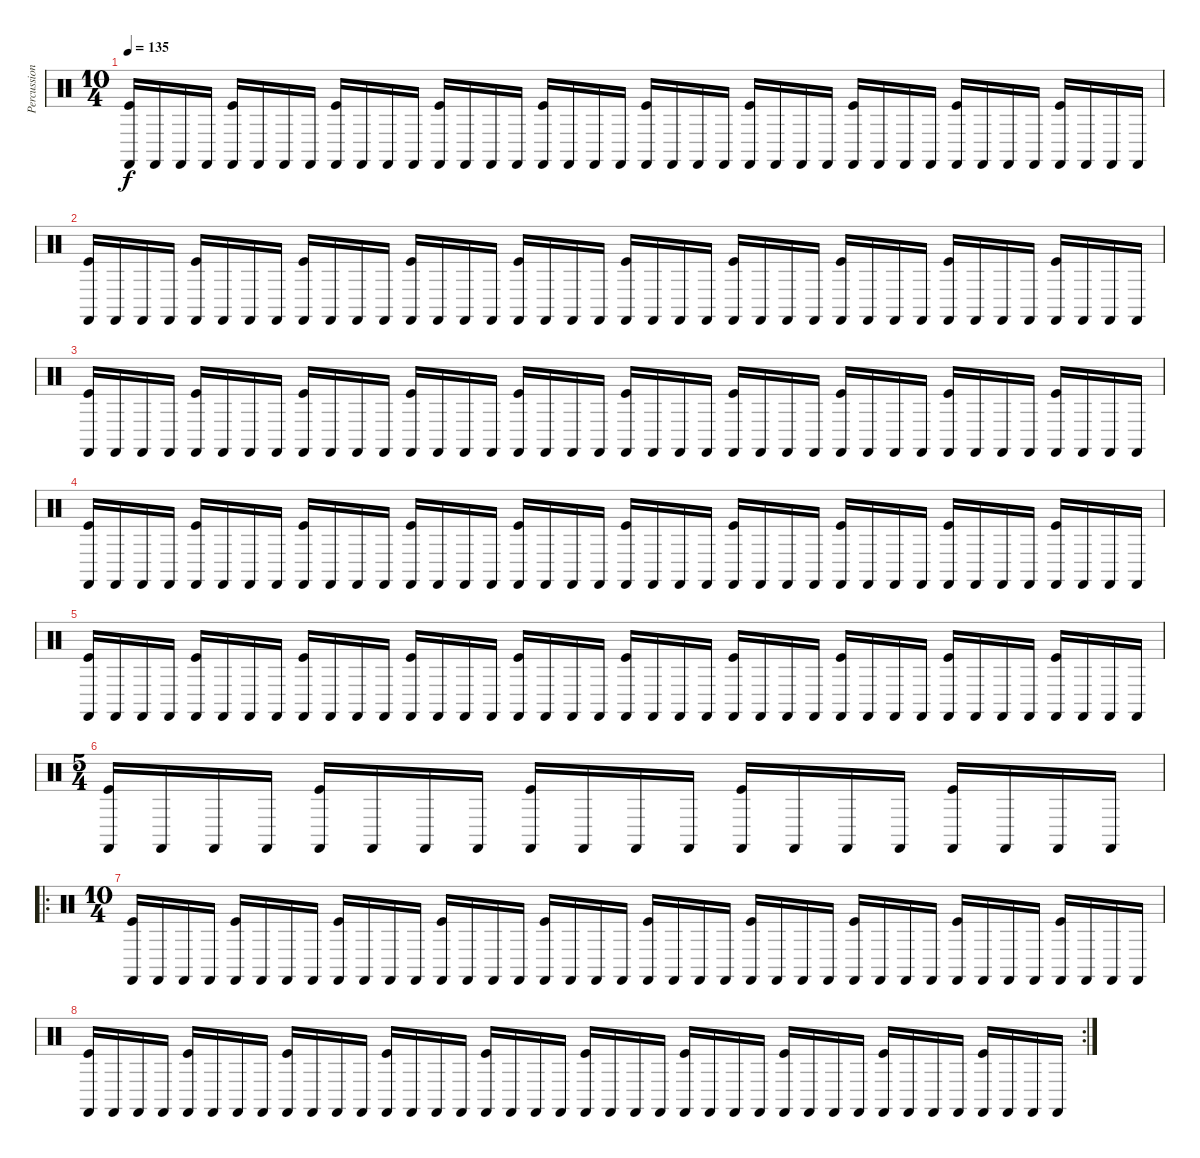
\track ("Percussion" "Percussion") {instrument percussion}
\staff {score}
\articulation defaults
\ts (10 4)
\tempo 135
\clef neutral
\ks c
("Kick (hit)" "Castanets (hit)").16{dy f} "Castanets (hit)".16 "Castanets (hit)".16 "Castanets (hit)".16 ("Kick (hit)" "Castanets (hit)").16 "Castanets (hit)".16 "Castanets (hit)".16 "Castanets (hit)".16 ("Kick (hit)" "Castanets (hit)").16 "Castanets (hit)".16 "Castanets (hit)".16 "Castanets (hit)".16 ("Kick (hit)" "Castanets (hit)").16 "Castanets (hit)".16 "Castanets (hit)".16 "Castanets (hit)".16 ("Kick (hit)" "Castanets (hit)").16 "Castanets (hit)".16 "Castanets (hit)".16 "Castanets (hit)".16 ("Kick (hit)" "Castanets (hit)").16 "Castanets (hit)".16 "Castanets (hit)".16 "Castanets (hit)".16 ("Kick (hit)" "Castanets (hit)").16 "Castanets (hit)".16 "Castanets (hit)".16 "Castanets (hit)".16 ("Kick (hit)" "Castanets (hit)").16 "Castanets (hit)".16 "Castanets (hit)".16 "Castanets (hit)".16 ("Kick (hit)" "Castanets (hit)").16 "Castanets (hit)".16 "Castanets (hit)".16 "Castanets (hit)".16 ("Kick (hit)" "Castanets (hit)").16 "Castanets (hit)".16 "Castanets (hit)".16 "Castanets (hit)".16 |
("Kick (hit)" "Castanets (hit)").16 "Castanets (hit)".16 "Castanets (hit)".16 "Castanets (hit)".16 ("Kick (hit)" "Castanets (hit)").16 "Castanets (hit)".16 "Castanets (hit)".16 "Castanets (hit)".16 ("Kick (hit)" "Castanets (hit)").16 "Castanets (hit)".16 "Castanets (hit)".16 "Castanets (hit)".16 ("Kick (hit)" "Castanets (hit)").16 "Castanets (hit)".16 "Castanets (hit)".16 "Castanets (hit)".16 ("Kick (hit)" "Castanets (hit)").16 "Castanets (hit)".16 "Castanets (hit)".16 "Castanets (hit)".16 ("Kick (hit)" "Castanets (hit)").16 "Castanets (hit)".16 "Castanets (hit)".16 "Castanets (hit)".16 ("Kick (hit)" "Castanets (hit)").16 "Castanets (hit)".16 "Castanets (hit)".16 "Castanets (hit)".16 ("Kick (hit)" "Castanets (hit)").16 "Castanets (hit)".16 "Castanets (hit)".16 "Castanets (hit)".16 ("Kick (hit)" "Castanets (hit)").16 "Castanets (hit)".16 "Castanets (hit)".16 "Castanets (hit)".16 ("Kick (hit)" "Castanets (hit)").16 "Castanets (hit)".16 "Castanets (hit)".16 "Castanets (hit)".16 |
("Kick (hit)" "Castanets (hit)").16 "Castanets (hit)".16 "Castanets (hit)".16 "Castanets (hit)".16 ("Kick (hit)" "Castanets (hit)").16 "Castanets (hit)".16 "Castanets (hit)".16 "Castanets (hit)".16 ("Kick (hit)" "Castanets (hit)").16 "Castanets (hit)".16 "Castanets (hit)".16 "Castanets (hit)".16 ("Kick (hit)" "Castanets (hit)").16 "Castanets (hit)".16 "Castanets (hit)".16 "Castanets (hit)".16 ("Kick (hit)" "Castanets (hit)").16 "Castanets (hit)".16 "Castanets (hit)".16 "Castanets (hit)".16 ("Kick (hit)" "Castanets (hit)").16 "Castanets (hit)".16 "Castanets (hit)".16 "Castanets (hit)".16 ("Kick (hit)" "Castanets (hit)").16 "Castanets (hit)".16 "Castanets (hit)".16 "Castanets (hit)".16 ("Kick (hit)" "Castanets (hit)").16 "Castanets (hit)".16 "Castanets (hit)".16 "Castanets (hit)".16 ("Kick (hit)" "Castanets (hit)").16 "Castanets (hit)".16 "Castanets (hit)".16 "Castanets (hit)".16 ("Kick (hit)" "Castanets (hit)").16 "Castanets (hit)".16 "Castanets (hit)".16 "Castanets (hit)".16 |
("Kick (hit)" "Castanets (hit)").16 "Castanets (hit)".16 "Castanets (hit)".16 "Castanets (hit)".16 ("Kick (hit)" "Castanets (hit)").16 "Castanets (hit)".16 "Castanets (hit)".16 "Castanets (hit)".16 ("Kick (hit)" "Castanets (hit)").16 "Castanets (hit)".16 "Castanets (hit)".16 "Castanets (hit)".16 ("Kick (hit)" "Castanets (hit)").16 "Castanets (hit)".16 "Castanets (hit)".16 "Castanets (hit)".16 ("Kick (hit)" "Castanets (hit)").16 "Castanets (hit)".16 "Castanets (hit)".16 "Castanets (hit)".16 ("Kick (hit)" "Castanets (hit)").16 "Castanets (hit)".16 "Castanets (hit)".16 "Castanets (hit)".16 ("Kick (hit)" "Castanets (hit)").16 "Castanets (hit)".16 "Castanets (hit)".16 "Castanets (hit)".16 ("Kick (hit)" "Castanets (hit)").16 "Castanets (hit)".16 "Castanets (hit)".16 "Castanets (hit)".16 ("Kick (hit)" "Castanets (hit)").16 "Castanets (hit)".16 "Castanets (hit)".16 "Castanets (hit)".16 ("Kick (hit)" "Castanets (hit)").16 "Castanets (hit)".16 "Castanets (hit)".16 "Castanets (hit)".16 |
("Kick (hit)" "Castanets (hit)").16 "Castanets (hit)".16 "Castanets (hit)".16 "Castanets (hit)".16 ("Kick (hit)" "Castanets (hit)").16 "Castanets (hit)".16 "Castanets (hit)".16 "Castanets (hit)".16 ("Kick (hit)" "Castanets (hit)").16 "Castanets (hit)".16 "Castanets (hit)".16 "Castanets (hit)".16 ("Kick (hit)" "Castanets (hit)").16 "Castanets (hit)".16 "Castanets (hit)".16 "Castanets (hit)".16 ("Kick (hit)" "Castanets (hit)").16 "Castanets (hit)".16 "Castanets (hit)".16 "Castanets (hit)".16 ("Kick (hit)" "Castanets (hit)").16 "Castanets (hit)".16 "Castanets (hit)".16 "Castanets (hit)".16 ("Kick (hit)" "Castanets (hit)").16 "Castanets (hit)".16 "Castanets (hit)".16 "Castanets (hit)".16 ("Kick (hit)" "Castanets (hit)").16 "Castanets (hit)".16 "Castanets (hit)".16 "Castanets (hit)".16 ("Kick (hit)" "Castanets (hit)").16 "Castanets (hit)".16 "Castanets (hit)".16 "Castanets (hit)".16 ("Kick (hit)" "Castanets (hit)").16 "Castanets (hit)".16 "Castanets (hit)".16 "Castanets (hit)".16 |
\ts (5 4)
("Kick (hit)" "Castanets (hit)").16 "Castanets (hit)".16 "Castanets (hit)".16 "Castanets (hit)".16 ("Kick (hit)" "Castanets (hit)").16 "Castanets (hit)".16 "Castanets (hit)".16 "Castanets (hit)".16 ("Kick (hit)" "Castanets (hit)").16 "Castanets (hit)".16 "Castanets (hit)".16 "Castanets (hit)".16 ("Kick (hit)" "Castanets (hit)").16 "Castanets (hit)".16 "Castanets (hit)".16 "Castanets (hit)".16 ("Kick (hit)" "Castanets (hit)").16 "Castanets (hit)".16 "Castanets (hit)".16 "Castanets (hit)".16 |
\ro
\ts (10 4)
("Kick (hit)" "Castanets (hit)").16 "Castanets (hit)".16 "Castanets (hit)".16 "Castanets (hit)".16 ("Kick (hit)" "Castanets (hit)").16 "Castanets (hit)".16 "Castanets (hit)".16 "Castanets (hit)".16 ("Kick (hit)" "Castanets (hit)").16 "Castanets (hit)".16 "Castanets (hit)".16 "Castanets (hit)".16 ("Kick (hit)" "Castanets (hit)").16 "Castanets (hit)".16 "Castanets (hit)".16 "Castanets (hit)".16 ("Kick (hit)" "Castanets (hit)").16 "Castanets (hit)".16 "Castanets (hit)".16 "Castanets (hit)".16 ("Kick (hit)" "Castanets (hit)").16 "Castanets (hit)".16 "Castanets (hit)".16 "Castanets (hit)".16 ("Kick (hit)" "Castanets (hit)").16 "Castanets (hit)".16 "Castanets (hit)".16 "Castanets (hit)".16 ("Kick (hit)" "Castanets (hit)").16 "Castanets (hit)".16 "Castanets (hit)".16 "Castanets (hit)".16 ("Kick (hit)" "Castanets (hit)").16 "Castanets (hit)".16 "Castanets (hit)".16 "Castanets (hit)".16 ("Kick (hit)" "Castanets (hit)").16 "Castanets (hit)".16 "Castanets (hit)".16 "Castanets (hit)".16 |
\rc 2
("Kick (hit)" "Castanets (hit)").16 "Castanets (hit)".16 "Castanets (hit)".16 "Castanets (hit)".16 ("Kick (hit)" "Castanets (hit)").16 "Castanets (hit)".16 "Castanets (hit)".16 "Castanets (hit)".16 ("Kick (hit)" "Castanets (hit)").16 "Castanets (hit)".16 "Castanets (hit)".16 "Castanets (hit)".16 ("Kick (hit)" "Castanets (hit)").16 "Castanets (hit)".16 "Castanets (hit)".16 "Castanets (hit)".16 ("Kick (hit)" "Castanets (hit)").16 "Castanets (hit)".16 "Castanets (hit)".16 "Castanets (hit)".16 ("Kick (hit)" "Castanets (hit)").16 "Castanets (hit)".16 "Castanets (hit)".16 "Castanets (hit)".16 ("Kick (hit)" "Castanets (hit)").16 "Castanets (hit)".16 "Castanets (hit)".16 "Castanets (hit)".16 ("Kick (hit)" "Castanets (hit)").16 "Castanets (hit)".16 "Castanets (hit)".16 "Castanets (hit)".16 ("Kick (hit)" "Castanets (hit)").16 "Castanets (hit)".16 "Castanets (hit)".16 "Castanets (hit)".16 ("Kick (hit)" "Castanets (hit)").16 "Castanets (hit)".16 "Castanets (hit)".16 "Castanets (hit)".16
